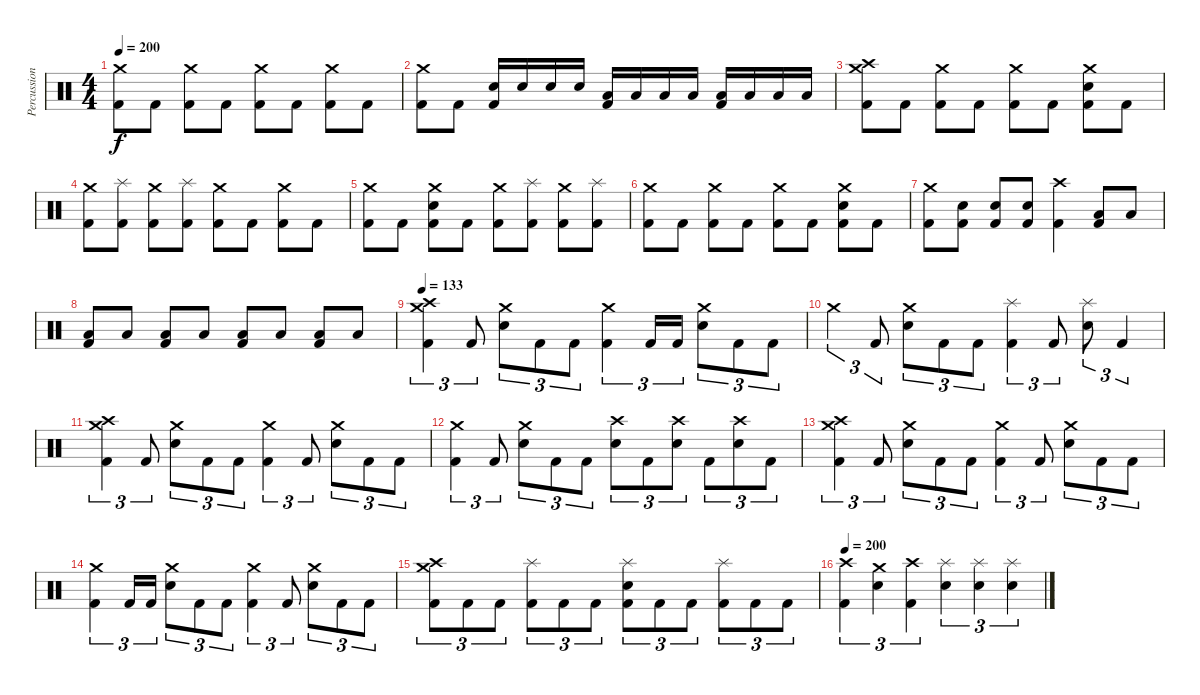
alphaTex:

\track ("Percussion" "Percussion") {instrument percussion}
\staff {score}
\articulation defaults
\ts (4 4)
\tempo 200
\clef neutral
\ks c
("Crash medium (hit)" "Kick (hit) 2").8{dy f} "Kick (hit) 2".8 ("Crash medium (hit)" "Kick (hit) 2").8 "Kick (hit) 2".8 ("Crash medium (hit)" "Kick (hit) 2").8 "Kick (hit) 2".8 ("Crash medium (hit)" "Kick (hit) 2").8 "Kick (hit) 2".8 |
("Crash medium (hit)" "Kick (hit) 2").8 "Kick (hit) 2".8 ("Electric Snare (hit)" "Kick (hit) 2").16 "Electric Snare (hit)".16 "Electric Snare (hit)".16 "Electric Snare (hit)".16 ("Low Tom (hit)" "Kick (hit) 2").16 "Low Tom (hit)".16 "Low Tom (hit)".16 "Low Tom (hit)".16 ("Low Floor Tom (hit)" "Kick (hit) 2").16 "Low Floor Tom (hit)".16 "Low Floor Tom (hit)".16 "Low Floor Tom (hit)".16 |
("Crash medium (hit)" "Crash high (hit)" "Kick (hit) 2").8 "Kick (hit) 2".8 ("Crash medium (hit)" "Kick (hit) 2").8 "Kick (hit) 2".8 ("Crash medium (hit)" "Kick (hit) 2").8 "Kick (hit) 2".8 ("Crash medium (hit)" "Electric Snare (hit)" "Kick (hit) 2").8 "Kick (hit) 2".8 |
("Crash medium (hit)" "Kick (hit) 2").8 ("Splash (hit)" "Kick (hit) 2").8 ("Crash medium (hit)" "Kick (hit) 2").8 ("Splash (hit)" "Kick (hit) 2").8 ("Crash medium (hit)" "Kick (hit) 2").8 "Kick (hit) 2".8 ("Crash medium (hit)" "Kick (hit) 2").8 "Kick (hit) 2".8 |
("Crash medium (hit)" "Kick (hit) 2").8 "Kick (hit) 2".8 ("Crash medium (hit)" "Electric Snare (hit)" "Kick (hit) 2").8 "Kick (hit) 2".8 ("Crash medium (hit)" "Kick (hit) 2").8 ("Splash (hit)" "Kick (hit) 2").8 ("Crash medium (hit)" "Kick (hit) 2").8 ("Splash (hit)" "Kick (hit) 2").8 |
("Crash medium (hit)" "Kick (hit) 2").8 "Kick (hit) 2".8 ("Crash medium (hit)" "Kick (hit) 2").8 "Kick (hit) 2".8 ("Crash medium (hit)" "Kick (hit) 2").8 "Kick (hit) 2".8 ("Crash medium (hit)" "Electric Snare (hit)" "Kick (hit) 2").8 "Kick (hit) 2".8 |
("Crash medium (hit)" "Kick (hit) 2").8 ("Electric Snare (hit)" "Kick (hit) 2").8 ("Electric Snare (hit)" "Kick (hit) 2").8 ("Electric Snare (hit)" "Kick (hit) 2").8 ("Crash high (hit)" "Kick (hit) 2").4 ("Low Tom (hit)" "Kick (hit) 2").8 "Low Tom (hit)".8 |
("Low Tom (hit)" "Kick (hit) 2").8 "Low Tom (hit)".8 ("Low Floor Tom (hit)" "Kick (hit) 2").8 "Low Floor Tom (hit)".8 ("Low Floor Tom (hit)" "Kick (hit) 2").8 "Low Floor Tom (hit)".8 ("Low Floor Tom (hit)" "Kick (hit) 2").8 "Low Floor Tom (hit)".8 |
\tempo 133
("Crash medium (hit)" "Crash high (hit)" "Kick (hit) 2").4{tu (3 2)} "Kick (hit) 2".8{tu (3 2)} ("Crash medium (hit)" "Electric Snare (hit)").8{tu (3 2)} "Kick (hit) 2".8{tu (3 2)} "Kick (hit) 2".8{tu (3 2)} ("Crash medium (hit)" "Kick (hit) 2").4{tu (3 2)} "Kick (hit) 2".16{tu (3 2)} "Kick (hit) 2".16{tu (3 2)} ("Crash medium (hit)" "Electric Snare (hit)").8{tu (3 2)} "Kick (hit) 2".8{tu (3 2)} "Kick (hit) 2".8{tu (3 2)} |
"Crash medium (hit)".4{tu (3 2)} "Kick (hit) 2".8{tu (3 2)} ("Crash medium (hit)" "Electric Snare (hit)").8{tu (3 2)} "Kick (hit) 2".8{tu (3 2)} "Kick (hit) 2".8{tu (3 2)} ("Splash (hit)" "Kick (hit) 2").4{tu (3 2)} "Kick (hit) 2".8{tu (3 2)} ("Splash (hit)" "Electric Snare (hit)").8{tu (3 2)} "Kick (hit) 2".4{tu (3 2)} |
("Crash medium (hit)" "Crash high (hit)" "Kick (hit) 2").4{tu (3 2)} "Kick (hit) 2".8{tu (3 2)} ("Crash medium (hit)" "Electric Snare (hit)").8{tu (3 2)} "Kick (hit) 2".8{tu (3 2)} "Kick (hit) 2".8{tu (3 2)} ("Crash medium (hit)" "Kick (hit) 2").4{tu (3 2)} "Kick (hit) 2".8{tu (3 2)} ("Crash medium (hit)" "Electric Snare (hit)").8{tu (3 2)} "Kick (hit) 2".8{tu (3 2)} "Kick (hit) 2".8{tu (3 2)} |
("Crash medium (hit)" "Kick (hit) 2").4{tu (3 2)} "Kick (hit) 2".8{tu (3 2)} ("Crash medium (hit)" "Electric Snare (hit)").8{tu (3 2)} "Kick (hit) 2".8{tu (3 2)} "Kick (hit) 2".8{tu (3 2)} ("Crash high (hit)" "Electric Snare (hit)").8{tu (3 2)} "Kick (hit) 2".8{tu (3 2)} ("Crash high (hit)" "Electric Snare (hit)").8{tu (3 2)} "Kick (hit) 2".8{tu (3 2)} ("Crash high (hit)" "Electric Snare (hit)").8{tu (3 2)} "Kick (hit) 2".8{tu (3 2)} |
("Crash medium (hit)" "Crash high (hit)" "Kick (hit) 2").4{tu (3 2)} "Kick (hit) 2".8{tu (3 2)} ("Crash medium (hit)" "Electric Snare (hit)").8{tu (3 2)} "Kick (hit) 2".8{tu (3 2)} "Kick (hit) 2".8{tu (3 2)} ("Crash medium (hit)" "Kick (hit) 2").4{tu (3 2)} "Kick (hit) 2".8{tu (3 2)} ("Crash medium (hit)" "Electric Snare (hit)").8{tu (3 2)} "Kick (hit) 2".8{tu (3 2)} "Kick (hit) 2".8{tu (3 2)} |
("Crash medium (hit)" "Kick (hit) 2").4{tu (3 2)} "Kick (hit) 2".16{tu (3 2)} "Kick (hit) 2".16{tu (3 2)} ("Crash medium (hit)" "Electric Snare (hit)").8{tu (3 2)} "Kick (hit) 2".8{tu (3 2)} "Kick (hit) 2".8{tu (3 2)} ("Crash medium (hit)" "Kick (hit) 2").4{tu (3 2)} "Kick (hit) 2".8{tu (3 2)} ("Crash medium (hit)" "Electric Snare (hit)").8{tu (3 2)} "Kick (hit) 2".8{tu (3 2)} "Kick (hit) 2".8{tu (3 2)} |
("Crash medium (hit)" "Crash high (hit)" "Kick (hit) 2").8{tu (3 2)} "Kick (hit) 2".8{tu (3 2)} "Kick (hit) 2".8{tu (3 2)} ("Splash (hit)" "Kick (hit) 2").8{tu (3 2)} "Kick (hit) 2".8{tu (3 2)} "Kick (hit) 2".8{tu (3 2)} ("Splash (hit)" "Electric Snare (hit)" "Kick (hit) 2").8{tu (3 2)} "Kick (hit) 2".8{tu (3 2)} "Kick (hit) 2".8{tu (3 2)} ("Splash (hit)" "Kick (hit) 2").8{tu (3 2)} "Kick (hit) 2".8{tu (3 2)} "Kick (hit) 2".8{tu (3 2)} |
\tempo 200
("Crash high (hit)" "Kick (hit) 2").4{tu (3 2)} ("Crash medium (hit)" "Electric Snare (hit)").4{tu (3 2)} ("Crash high (hit)" "Kick (hit) 2").4{tu (3 2)} ("Splash (hit)" "Electric Snare (hit)").4{tu (3 2)} ("Splash (hit)" "Electric Snare (hit)").4{tu (3 2)} ("Splash (hit)" "Electric Snare (hit)").4{tu (3 2)}
